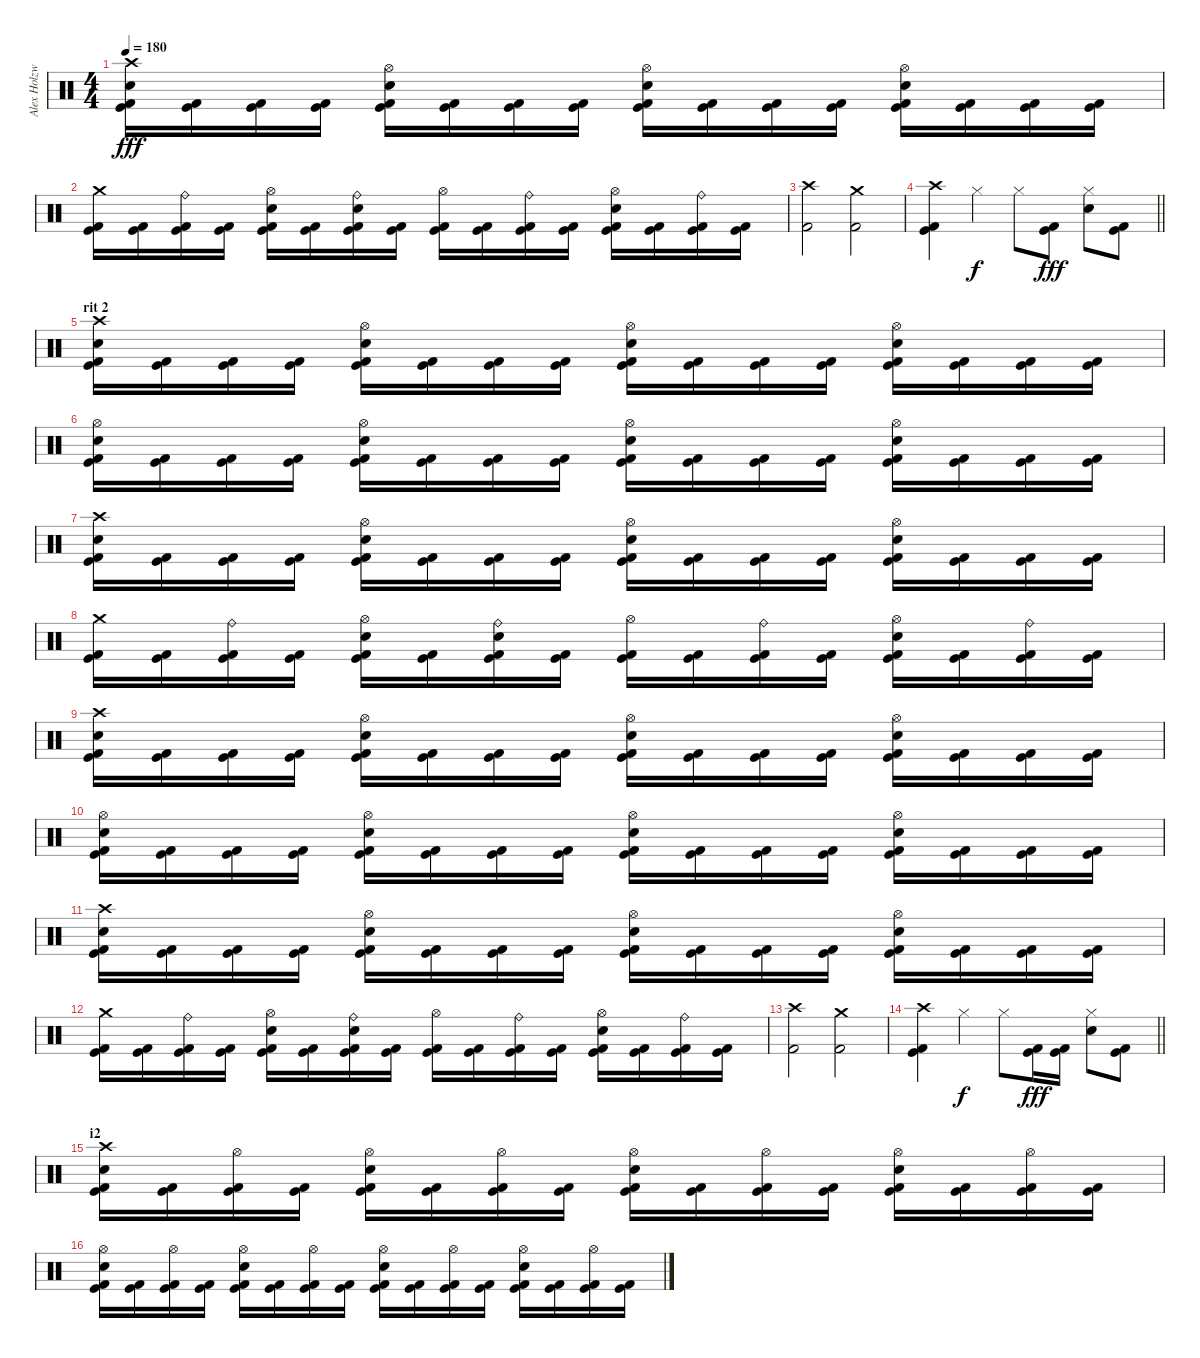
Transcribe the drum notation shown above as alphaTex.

\track ("Alex Holzwarth" "Alex Holzw") {instrument percussion}
\staff {score}
\articulation defaults
\ts (4 4)
\tempo 180
\clef neutral
\ks c
("Crash high (hit)" "Snare (hit) 2" "Kick (hit)" "Kick (hit) 2").16{dy fff} ("Kick (hit)" "Kick (hit) 2").16 ("Kick (hit)" "Kick (hit) 2").16 ("Kick (hit)" "Kick (hit) 2").16 ("Hi-Hat (open)" "Snare (hit) 2" "Kick (hit)" "Kick (hit) 2").16 ("Kick (hit)" "Kick (hit) 2").16 ("Kick (hit)" "Kick (hit) 2").16 ("Kick (hit)" "Kick (hit) 2").16 ("Hi-Hat (open)" "Snare (hit) 2" "Kick (hit)" "Kick (hit) 2").16 ("Kick (hit)" "Kick (hit) 2").16 ("Kick (hit)" "Kick (hit) 2").16 ("Kick (hit)" "Kick (hit) 2").16 ("Hi-Hat (open)" "Snare (hit) 2" "Kick (hit)" "Kick (hit) 2").16 ("Kick (hit)" "Kick (hit) 2").16 ("Kick (hit)" "Kick (hit) 2").16 ("Kick (hit)" "Kick (hit) 2").16 |
("Crash medium (hit)" "Kick (hit)" "Kick (hit) 2").16 ("Kick (hit)" "Kick (hit) 2").16 ("Ride (bell)" "Kick (hit)" "Kick (hit) 2").16 ("Kick (hit)" "Kick (hit) 2").16 ("Hi-Hat (open)" "Snare (hit) 2" "Kick (hit)" "Kick (hit) 2").16 ("Kick (hit)" "Kick (hit) 2").16 ("Ride (bell)" "Snare (hit) 2" "Kick (hit)" "Kick (hit) 2").16 ("Kick (hit)" "Kick (hit) 2").16 ("Hi-Hat (open)" "Kick (hit)" "Kick (hit) 2").16 ("Kick (hit)" "Kick (hit) 2").16 ("Ride (bell)" "Kick (hit)" "Kick (hit) 2").16 ("Kick (hit)" "Kick (hit) 2").16 ("Hi-Hat (open)" "Snare (hit) 2" "Kick (hit)" "Kick (hit) 2").16 ("Kick (hit)" "Kick (hit) 2").16 ("Ride (bell)" "Kick (hit)" "Kick (hit) 2").16 ("Kick (hit)" "Kick (hit) 2").16 |
("Crash high (hit)" "Kick (hit) 2").2 ("Crash medium (hit)" "Kick (hit) 2").2 |
\barLineRight lightlight
("Crash high (hit)" "Kick (hit)" "Kick (hit) 2").4 "Hi-Hat (closed)".4{dy f} "Hi-Hat (closed)".8 ("Kick (hit)" "Kick (hit) 2").8{dy fff} ("Hi-Hat (closed)" "Snare (hit) 2").8 ("Kick (hit)" "Kick (hit) 2").8 |
\section ("" "rit 2")
("Crash high (hit)" "Snare (hit) 2" "Kick (hit)" "Kick (hit) 2").16 ("Kick (hit)" "Kick (hit) 2").16 ("Kick (hit)" "Kick (hit) 2").16 ("Kick (hit)" "Kick (hit) 2").16 ("Hi-Hat (open)" "Snare (hit) 2" "Kick (hit)" "Kick (hit) 2").16 ("Kick (hit)" "Kick (hit) 2").16 ("Kick (hit)" "Kick (hit) 2").16 ("Kick (hit)" "Kick (hit) 2").16 ("Hi-Hat (open)" "Snare (hit) 2" "Kick (hit)" "Kick (hit) 2").16 ("Kick (hit)" "Kick (hit) 2").16 ("Kick (hit)" "Kick (hit) 2").16 ("Kick (hit)" "Kick (hit) 2").16 ("Hi-Hat (open)" "Snare (hit) 2" "Kick (hit)" "Kick (hit) 2").16 ("Kick (hit)" "Kick (hit) 2").16 ("Kick (hit)" "Kick (hit) 2").16 ("Kick (hit)" "Kick (hit) 2").16 |
("Hi-Hat (open)" "Snare (hit) 2" "Kick (hit)" "Kick (hit) 2").16 ("Kick (hit)" "Kick (hit) 2").16 ("Kick (hit)" "Kick (hit) 2").16 ("Kick (hit)" "Kick (hit) 2").16 ("Hi-Hat (open)" "Snare (hit) 2" "Kick (hit)" "Kick (hit) 2").16 ("Kick (hit)" "Kick (hit) 2").16 ("Kick (hit)" "Kick (hit) 2").16 ("Kick (hit)" "Kick (hit) 2").16 ("Hi-Hat (open)" "Snare (hit) 2" "Kick (hit)" "Kick (hit) 2").16 ("Kick (hit)" "Kick (hit) 2").16 ("Kick (hit)" "Kick (hit) 2").16 ("Kick (hit)" "Kick (hit) 2").16 ("Hi-Hat (open)" "Snare (hit) 2" "Kick (hit)" "Kick (hit) 2").16 ("Kick (hit)" "Kick (hit) 2").16 ("Kick (hit)" "Kick (hit) 2").16 ("Kick (hit)" "Kick (hit) 2").16 |
("Crash high (hit)" "Snare (hit) 2" "Kick (hit)" "Kick (hit) 2").16 ("Kick (hit)" "Kick (hit) 2").16 ("Kick (hit)" "Kick (hit) 2").16 ("Kick (hit)" "Kick (hit) 2").16 ("Hi-Hat (open)" "Snare (hit) 2" "Kick (hit)" "Kick (hit) 2").16 ("Kick (hit)" "Kick (hit) 2").16 ("Kick (hit)" "Kick (hit) 2").16 ("Kick (hit)" "Kick (hit) 2").16 ("Hi-Hat (open)" "Snare (hit) 2" "Kick (hit)" "Kick (hit) 2").16 ("Kick (hit)" "Kick (hit) 2").16 ("Kick (hit)" "Kick (hit) 2").16 ("Kick (hit)" "Kick (hit) 2").16 ("Hi-Hat (open)" "Snare (hit) 2" "Kick (hit)" "Kick (hit) 2").16 ("Kick (hit)" "Kick (hit) 2").16 ("Kick (hit)" "Kick (hit) 2").16 ("Kick (hit)" "Kick (hit) 2").16 |
("Crash medium (hit)" "Kick (hit)" "Kick (hit) 2").16 ("Kick (hit)" "Kick (hit) 2").16 ("Ride (bell)" "Kick (hit)" "Kick (hit) 2").16 ("Kick (hit)" "Kick (hit) 2").16 ("Hi-Hat (open)" "Snare (hit) 2" "Kick (hit)" "Kick (hit) 2").16 ("Kick (hit)" "Kick (hit) 2").16 ("Ride (bell)" "Snare (hit) 2" "Kick (hit)" "Kick (hit) 2").16 ("Kick (hit)" "Kick (hit) 2").16 ("Hi-Hat (open)" "Kick (hit)" "Kick (hit) 2").16 ("Kick (hit)" "Kick (hit) 2").16 ("Ride (bell)" "Kick (hit)" "Kick (hit) 2").16 ("Kick (hit)" "Kick (hit) 2").16 ("Hi-Hat (open)" "Snare (hit) 2" "Kick (hit)" "Kick (hit) 2").16 ("Kick (hit)" "Kick (hit) 2").16 ("Ride (bell)" "Kick (hit)" "Kick (hit) 2").16 ("Kick (hit)" "Kick (hit) 2").16 |
("Crash high (hit)" "Snare (hit) 2" "Kick (hit)" "Kick (hit) 2").16 ("Kick (hit)" "Kick (hit) 2").16 ("Kick (hit)" "Kick (hit) 2").16 ("Kick (hit)" "Kick (hit) 2").16 ("Hi-Hat (open)" "Snare (hit) 2" "Kick (hit)" "Kick (hit) 2").16 ("Kick (hit)" "Kick (hit) 2").16 ("Kick (hit)" "Kick (hit) 2").16 ("Kick (hit)" "Kick (hit) 2").16 ("Hi-Hat (open)" "Snare (hit) 2" "Kick (hit)" "Kick (hit) 2").16 ("Kick (hit)" "Kick (hit) 2").16 ("Kick (hit)" "Kick (hit) 2").16 ("Kick (hit)" "Kick (hit) 2").16 ("Hi-Hat (open)" "Snare (hit) 2" "Kick (hit)" "Kick (hit) 2").16 ("Kick (hit)" "Kick (hit) 2").16 ("Kick (hit)" "Kick (hit) 2").16 ("Kick (hit)" "Kick (hit) 2").16 |
("Hi-Hat (open)" "Snare (hit) 2" "Kick (hit)" "Kick (hit) 2").16 ("Kick (hit)" "Kick (hit) 2").16 ("Kick (hit)" "Kick (hit) 2").16 ("Kick (hit)" "Kick (hit) 2").16 ("Hi-Hat (open)" "Snare (hit) 2" "Kick (hit)" "Kick (hit) 2").16 ("Kick (hit)" "Kick (hit) 2").16 ("Kick (hit)" "Kick (hit) 2").16 ("Kick (hit)" "Kick (hit) 2").16 ("Hi-Hat (open)" "Snare (hit) 2" "Kick (hit)" "Kick (hit) 2").16 ("Kick (hit)" "Kick (hit) 2").16 ("Kick (hit)" "Kick (hit) 2").16 ("Kick (hit)" "Kick (hit) 2").16 ("Hi-Hat (open)" "Snare (hit) 2" "Kick (hit)" "Kick (hit) 2").16 ("Kick (hit)" "Kick (hit) 2").16 ("Kick (hit)" "Kick (hit) 2").16 ("Kick (hit)" "Kick (hit) 2").16 |
("Crash high (hit)" "Snare (hit) 2" "Kick (hit)" "Kick (hit) 2").16 ("Kick (hit)" "Kick (hit) 2").16 ("Kick (hit)" "Kick (hit) 2").16 ("Kick (hit)" "Kick (hit) 2").16 ("Hi-Hat (open)" "Snare (hit) 2" "Kick (hit)" "Kick (hit) 2").16 ("Kick (hit)" "Kick (hit) 2").16 ("Kick (hit)" "Kick (hit) 2").16 ("Kick (hit)" "Kick (hit) 2").16 ("Hi-Hat (open)" "Snare (hit) 2" "Kick (hit)" "Kick (hit) 2").16 ("Kick (hit)" "Kick (hit) 2").16 ("Kick (hit)" "Kick (hit) 2").16 ("Kick (hit)" "Kick (hit) 2").16 ("Hi-Hat (open)" "Snare (hit) 2" "Kick (hit)" "Kick (hit) 2").16 ("Kick (hit)" "Kick (hit) 2").16 ("Kick (hit)" "Kick (hit) 2").16 ("Kick (hit)" "Kick (hit) 2").16 |
("Crash medium (hit)" "Kick (hit)" "Kick (hit) 2").16 ("Kick (hit)" "Kick (hit) 2").16 ("Ride (bell)" "Kick (hit)" "Kick (hit) 2").16 ("Kick (hit)" "Kick (hit) 2").16 ("Hi-Hat (open)" "Snare (hit) 2" "Kick (hit)" "Kick (hit) 2").16 ("Kick (hit)" "Kick (hit) 2").16 ("Ride (bell)" "Snare (hit) 2" "Kick (hit)" "Kick (hit) 2").16 ("Kick (hit)" "Kick (hit) 2").16 ("Hi-Hat (open)" "Kick (hit)" "Kick (hit) 2").16 ("Kick (hit)" "Kick (hit) 2").16 ("Ride (bell)" "Kick (hit)" "Kick (hit) 2").16 ("Kick (hit)" "Kick (hit) 2").16 ("Hi-Hat (open)" "Snare (hit) 2" "Kick (hit)" "Kick (hit) 2").16 ("Kick (hit)" "Kick (hit) 2").16 ("Ride (bell)" "Kick (hit)" "Kick (hit) 2").16 ("Kick (hit)" "Kick (hit) 2").16 |
("Crash high (hit)" "Kick (hit) 2").2 ("Crash medium (hit)" "Kick (hit) 2").2 |
\barLineRight lightlight
("Crash high (hit)" "Kick (hit)" "Kick (hit) 2").4 "Hi-Hat (closed)".4{dy f} "Hi-Hat (closed)".8 ("Kick (hit)" "Kick (hit) 2").16{dy fff} ("Kick (hit)" "Kick (hit) 2").16 ("Hi-Hat (closed)" "Snare (hit) 2").8 ("Kick (hit)" "Kick (hit) 2").8 |
\section ("" "i2")
("Crash high (hit)" "Snare (hit) 2" "Kick (hit)" "Kick (hit) 2").16 ("Kick (hit)" "Kick (hit) 2").16 ("Hi-Hat (open)" "Kick (hit)" "Kick (hit) 2").16 ("Kick (hit)" "Kick (hit) 2").16 ("Hi-Hat (open)" "Snare (hit) 2" "Kick (hit)" "Kick (hit) 2").16 ("Kick (hit)" "Kick (hit) 2").16 ("Hi-Hat (open)" "Kick (hit)" "Kick (hit) 2").16 ("Kick (hit)" "Kick (hit) 2").16 ("Hi-Hat (open)" "Snare (hit) 2" "Kick (hit)" "Kick (hit) 2").16 ("Kick (hit)" "Kick (hit) 2").16 ("Hi-Hat (open)" "Kick (hit)" "Kick (hit) 2").16 ("Kick (hit)" "Kick (hit) 2").16 ("Hi-Hat (open)" "Snare (hit) 2" "Kick (hit)" "Kick (hit) 2").16 ("Kick (hit)" "Kick (hit) 2").16 ("Hi-Hat (open)" "Kick (hit)" "Kick (hit) 2").16 ("Kick (hit)" "Kick (hit) 2").16 |
("Hi-Hat (open)" "Snare (hit) 2" "Kick (hit)" "Kick (hit) 2").16 ("Kick (hit)" "Kick (hit) 2").16 ("Hi-Hat (open)" "Kick (hit)" "Kick (hit) 2").16 ("Kick (hit)" "Kick (hit) 2").16 ("Hi-Hat (open)" "Snare (hit) 2" "Kick (hit)" "Kick (hit) 2").16 ("Kick (hit)" "Kick (hit) 2").16 ("Hi-Hat (open)" "Kick (hit)" "Kick (hit) 2").16 ("Kick (hit)" "Kick (hit) 2").16 ("Hi-Hat (open)" "Snare (hit) 2" "Kick (hit)" "Kick (hit) 2").16 ("Kick (hit)" "Kick (hit) 2").16 ("Hi-Hat (open)" "Kick (hit)" "Kick (hit) 2").16 ("Kick (hit)" "Kick (hit) 2").16 ("Hi-Hat (open)" "Snare (hit) 2" "Kick (hit)" "Kick (hit) 2").16 ("Kick (hit)" "Kick (hit) 2").16 ("Hi-Hat (open)" "Kick (hit)" "Kick (hit) 2").16 ("Kick (hit)" "Kick (hit) 2").16
